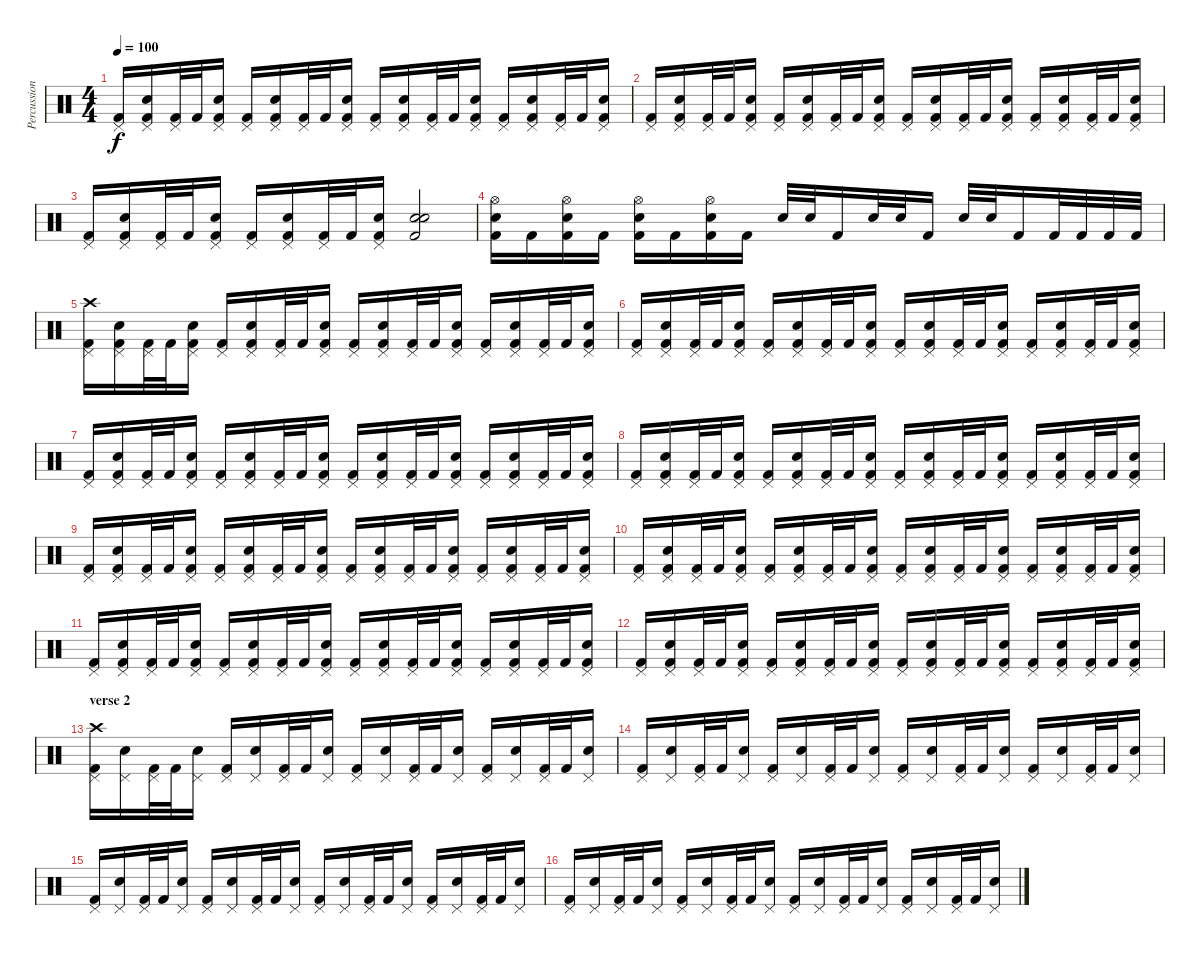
\track ("Percussion" "Percussion") {instrument percussion}
\staff {score}
\articulation defaults
\ts (4 4)
\tempo 100
\clef neutral
\ks c
("Pedal Hi-Hat (hit)" "Kick (hit) 2").16{dy f} ("Pedal Hi-Hat (hit)" "Electric Snare (hit)" "Kick (hit) 2").16 ("Pedal Hi-Hat (hit)" "Kick (hit) 2").32 "Kick (hit) 2".32 ("Pedal Hi-Hat (hit)" "Electric Snare (hit)" "Kick (hit) 2").16 ("Pedal Hi-Hat (hit)" "Kick (hit) 2").16 ("Pedal Hi-Hat (hit)" "Electric Snare (hit)" "Kick (hit) 2").16 ("Pedal Hi-Hat (hit)" "Kick (hit) 2").32 "Kick (hit) 2".32 ("Pedal Hi-Hat (hit)" "Electric Snare (hit)" "Kick (hit) 2").16 ("Pedal Hi-Hat (hit)" "Kick (hit) 2").16 ("Pedal Hi-Hat (hit)" "Electric Snare (hit)" "Kick (hit) 2").16 ("Pedal Hi-Hat (hit)" "Kick (hit) 2").32 "Kick (hit) 2".32 ("Pedal Hi-Hat (hit)" "Electric Snare (hit)" "Kick (hit) 2").16 ("Pedal Hi-Hat (hit)" "Kick (hit) 2").16 ("Pedal Hi-Hat (hit)" "Electric Snare (hit)" "Kick (hit) 2").16 ("Pedal Hi-Hat (hit)" "Kick (hit) 2").32 "Kick (hit) 2".32 ("Pedal Hi-Hat (hit)" "Electric Snare (hit)" "Kick (hit) 2").16 |
("Pedal Hi-Hat (hit)" "Kick (hit) 2").16 ("Pedal Hi-Hat (hit)" "Electric Snare (hit)" "Kick (hit) 2").16 ("Pedal Hi-Hat (hit)" "Kick (hit) 2").32 "Kick (hit) 2".32 ("Pedal Hi-Hat (hit)" "Electric Snare (hit)" "Kick (hit) 2").16 ("Pedal Hi-Hat (hit)" "Kick (hit) 2").16 ("Pedal Hi-Hat (hit)" "Electric Snare (hit)" "Kick (hit) 2").16 ("Pedal Hi-Hat (hit)" "Kick (hit) 2").32 "Kick (hit) 2".32 ("Pedal Hi-Hat (hit)" "Electric Snare (hit)" "Kick (hit) 2").16 ("Pedal Hi-Hat (hit)" "Kick (hit) 2").16 ("Pedal Hi-Hat (hit)" "Electric Snare (hit)" "Kick (hit) 2").16 ("Pedal Hi-Hat (hit)" "Kick (hit) 2").32 "Kick (hit) 2".32 ("Pedal Hi-Hat (hit)" "Electric Snare (hit)" "Kick (hit) 2").16 ("Pedal Hi-Hat (hit)" "Kick (hit) 2").16 ("Pedal Hi-Hat (hit)" "Electric Snare (hit)" "Kick (hit) 2").16 ("Pedal Hi-Hat (hit)" "Kick (hit) 2").32 "Kick (hit) 2".32 ("Pedal Hi-Hat (hit)" "Electric Snare (hit)" "Kick (hit) 2").16 |
("Pedal Hi-Hat (hit)" "Kick (hit) 2").16 ("Pedal Hi-Hat (hit)" "Electric Snare (hit)" "Kick (hit) 2").16 ("Pedal Hi-Hat (hit)" "Kick (hit) 2").32 "Kick (hit) 2".32 ("Pedal Hi-Hat (hit)" "Electric Snare (hit)" "Kick (hit) 2").16 ("Pedal Hi-Hat (hit)" "Kick (hit) 2").16 ("Pedal Hi-Hat (hit)" "Electric Snare (hit)" "Kick (hit) 2").16 ("Pedal Hi-Hat (hit)" "Kick (hit) 2").32 "Kick (hit) 2".32 ("Pedal Hi-Hat (hit)" "Electric Snare (hit)" "Kick (hit) 2").16 ("Snare (hit) 2" "Electric Snare (hit)" "Kick (hit) 2").2 |
("Hi-Hat (open)" "Electric Snare (hit)" "Kick (hit) 2").16 "Kick (hit) 2".16 ("Hi-Hat (open)" "Electric Snare (hit)" "Kick (hit) 2").16 "Kick (hit) 2".16 ("Hi-Hat (open)" "Electric Snare (hit)" "Kick (hit) 2").16 "Kick (hit) 2".16 ("Hi-Hat (open)" "Electric Snare (hit)" "Kick (hit) 2").16 "Kick (hit) 2".16 "Electric Snare (hit)".32 "Electric Snare (hit)".32 "Kick (hit) 2".16 "Electric Snare (hit)".32 "Electric Snare (hit)".32 "Kick (hit) 2".16 "Electric Snare (hit)".32 "Electric Snare (hit)".32 "Kick (hit) 2".16 "Kick (hit) 2".32 "Kick (hit) 2".32 "Kick (hit) 2".32 "Kick (hit) 2".32 |
("Crash high (hit)" "Pedal Hi-Hat (hit)" "Kick (hit) 2").16 ("Pedal Hi-Hat (hit)" "Electric Snare (hit)" "Kick (hit) 2").16 ("Pedal Hi-Hat (hit)" "Kick (hit) 2").32 "Kick (hit) 2".32 ("Pedal Hi-Hat (hit)" "Electric Snare (hit)" "Kick (hit) 2").16 ("Pedal Hi-Hat (hit)" "Kick (hit) 2").16 ("Pedal Hi-Hat (hit)" "Electric Snare (hit)" "Kick (hit) 2").16 ("Pedal Hi-Hat (hit)" "Kick (hit) 2").32 "Kick (hit) 2".32 ("Pedal Hi-Hat (hit)" "Electric Snare (hit)" "Kick (hit) 2").16 ("Pedal Hi-Hat (hit)" "Kick (hit) 2").16 ("Pedal Hi-Hat (hit)" "Electric Snare (hit)" "Kick (hit) 2").16 ("Pedal Hi-Hat (hit)" "Kick (hit) 2").32 "Kick (hit) 2".32 ("Pedal Hi-Hat (hit)" "Electric Snare (hit)" "Kick (hit) 2").16 ("Pedal Hi-Hat (hit)" "Kick (hit) 2").16 ("Pedal Hi-Hat (hit)" "Electric Snare (hit)" "Kick (hit) 2").16 ("Pedal Hi-Hat (hit)" "Kick (hit) 2").32 "Kick (hit) 2".32 ("Pedal Hi-Hat (hit)" "Electric Snare (hit)" "Kick (hit) 2").16 |
("Pedal Hi-Hat (hit)" "Kick (hit) 2").16 ("Pedal Hi-Hat (hit)" "Electric Snare (hit)" "Kick (hit) 2").16 ("Pedal Hi-Hat (hit)" "Kick (hit) 2").32 "Kick (hit) 2".32 ("Pedal Hi-Hat (hit)" "Electric Snare (hit)" "Kick (hit) 2").16 ("Pedal Hi-Hat (hit)" "Kick (hit) 2").16 ("Pedal Hi-Hat (hit)" "Electric Snare (hit)" "Kick (hit) 2").16 ("Pedal Hi-Hat (hit)" "Kick (hit) 2").32 "Kick (hit) 2".32 ("Pedal Hi-Hat (hit)" "Electric Snare (hit)" "Kick (hit) 2").16 ("Pedal Hi-Hat (hit)" "Kick (hit) 2").16 ("Pedal Hi-Hat (hit)" "Electric Snare (hit)" "Kick (hit) 2").16 ("Pedal Hi-Hat (hit)" "Kick (hit) 2").32 "Kick (hit) 2".32 ("Pedal Hi-Hat (hit)" "Electric Snare (hit)" "Kick (hit) 2").16 ("Pedal Hi-Hat (hit)" "Kick (hit) 2").16 ("Pedal Hi-Hat (hit)" "Electric Snare (hit)" "Kick (hit) 2").16 ("Pedal Hi-Hat (hit)" "Kick (hit) 2").32 "Kick (hit) 2".32 ("Pedal Hi-Hat (hit)" "Electric Snare (hit)" "Kick (hit) 2").16 |
("Pedal Hi-Hat (hit)" "Kick (hit) 2").16 ("Pedal Hi-Hat (hit)" "Electric Snare (hit)" "Kick (hit) 2").16 ("Pedal Hi-Hat (hit)" "Kick (hit) 2").32 "Kick (hit) 2".32 ("Pedal Hi-Hat (hit)" "Electric Snare (hit)" "Kick (hit) 2").16 ("Pedal Hi-Hat (hit)" "Kick (hit) 2").16 ("Pedal Hi-Hat (hit)" "Electric Snare (hit)" "Kick (hit) 2").16 ("Pedal Hi-Hat (hit)" "Kick (hit) 2").32 "Kick (hit) 2".32 ("Pedal Hi-Hat (hit)" "Electric Snare (hit)" "Kick (hit) 2").16 ("Pedal Hi-Hat (hit)" "Kick (hit) 2").16 ("Pedal Hi-Hat (hit)" "Electric Snare (hit)" "Kick (hit) 2").16 ("Pedal Hi-Hat (hit)" "Kick (hit) 2").32 "Kick (hit) 2".32 ("Pedal Hi-Hat (hit)" "Electric Snare (hit)" "Kick (hit) 2").16 ("Pedal Hi-Hat (hit)" "Kick (hit) 2").16 ("Pedal Hi-Hat (hit)" "Electric Snare (hit)" "Kick (hit) 2").16 ("Pedal Hi-Hat (hit)" "Kick (hit) 2").32 "Kick (hit) 2".32 ("Pedal Hi-Hat (hit)" "Electric Snare (hit)" "Kick (hit) 2").16 |
("Pedal Hi-Hat (hit)" "Kick (hit) 2").16 ("Pedal Hi-Hat (hit)" "Electric Snare (hit)" "Kick (hit) 2").16 ("Pedal Hi-Hat (hit)" "Kick (hit) 2").32 "Kick (hit) 2".32 ("Pedal Hi-Hat (hit)" "Electric Snare (hit)" "Kick (hit) 2").16 ("Pedal Hi-Hat (hit)" "Kick (hit) 2").16 ("Pedal Hi-Hat (hit)" "Electric Snare (hit)" "Kick (hit) 2").16 ("Pedal Hi-Hat (hit)" "Kick (hit) 2").32 "Kick (hit) 2".32 ("Pedal Hi-Hat (hit)" "Electric Snare (hit)" "Kick (hit) 2").16 ("Pedal Hi-Hat (hit)" "Kick (hit) 2").16 ("Pedal Hi-Hat (hit)" "Electric Snare (hit)" "Kick (hit) 2").16 ("Pedal Hi-Hat (hit)" "Kick (hit) 2").32 "Kick (hit) 2".32 ("Pedal Hi-Hat (hit)" "Electric Snare (hit)" "Kick (hit) 2").16 ("Pedal Hi-Hat (hit)" "Kick (hit) 2").16 ("Pedal Hi-Hat (hit)" "Electric Snare (hit)" "Kick (hit) 2").16 ("Pedal Hi-Hat (hit)" "Kick (hit) 2").32 "Kick (hit) 2".32 ("Pedal Hi-Hat (hit)" "Electric Snare (hit)" "Kick (hit) 2").16 |
("Pedal Hi-Hat (hit)" "Kick (hit) 2").16 ("Pedal Hi-Hat (hit)" "Electric Snare (hit)" "Kick (hit) 2").16 ("Pedal Hi-Hat (hit)" "Kick (hit) 2").32 "Kick (hit) 2".32 ("Pedal Hi-Hat (hit)" "Electric Snare (hit)" "Kick (hit) 2").16 ("Pedal Hi-Hat (hit)" "Kick (hit) 2").16 ("Pedal Hi-Hat (hit)" "Electric Snare (hit)" "Kick (hit) 2").16 ("Pedal Hi-Hat (hit)" "Kick (hit) 2").32 "Kick (hit) 2".32 ("Pedal Hi-Hat (hit)" "Electric Snare (hit)" "Kick (hit) 2").16 ("Pedal Hi-Hat (hit)" "Kick (hit) 2").16 ("Pedal Hi-Hat (hit)" "Electric Snare (hit)" "Kick (hit) 2").16 ("Pedal Hi-Hat (hit)" "Kick (hit) 2").32 "Kick (hit) 2".32 ("Pedal Hi-Hat (hit)" "Electric Snare (hit)" "Kick (hit) 2").16 ("Pedal Hi-Hat (hit)" "Kick (hit) 2").16 ("Pedal Hi-Hat (hit)" "Electric Snare (hit)" "Kick (hit) 2").16 ("Pedal Hi-Hat (hit)" "Kick (hit) 2").32 "Kick (hit) 2".32 ("Pedal Hi-Hat (hit)" "Electric Snare (hit)" "Kick (hit) 2").16 |
("Pedal Hi-Hat (hit)" "Kick (hit) 2").16 ("Pedal Hi-Hat (hit)" "Electric Snare (hit)" "Kick (hit) 2").16 ("Pedal Hi-Hat (hit)" "Kick (hit) 2").32 "Kick (hit) 2".32 ("Pedal Hi-Hat (hit)" "Electric Snare (hit)" "Kick (hit) 2").16 ("Pedal Hi-Hat (hit)" "Kick (hit) 2").16 ("Pedal Hi-Hat (hit)" "Electric Snare (hit)" "Kick (hit) 2").16 ("Pedal Hi-Hat (hit)" "Kick (hit) 2").32 "Kick (hit) 2".32 ("Pedal Hi-Hat (hit)" "Electric Snare (hit)" "Kick (hit) 2").16 ("Pedal Hi-Hat (hit)" "Kick (hit) 2").16 ("Pedal Hi-Hat (hit)" "Electric Snare (hit)" "Kick (hit) 2").16 ("Pedal Hi-Hat (hit)" "Kick (hit) 2").32 "Kick (hit) 2".32 ("Pedal Hi-Hat (hit)" "Electric Snare (hit)" "Kick (hit) 2").16 ("Pedal Hi-Hat (hit)" "Kick (hit) 2").16 ("Pedal Hi-Hat (hit)" "Electric Snare (hit)" "Kick (hit) 2").16 ("Pedal Hi-Hat (hit)" "Kick (hit) 2").32 "Kick (hit) 2".32 ("Pedal Hi-Hat (hit)" "Electric Snare (hit)" "Kick (hit) 2").16 |
("Pedal Hi-Hat (hit)" "Kick (hit) 2").16 ("Pedal Hi-Hat (hit)" "Electric Snare (hit)" "Kick (hit) 2").16 ("Pedal Hi-Hat (hit)" "Kick (hit) 2").32 "Kick (hit) 2".32 ("Pedal Hi-Hat (hit)" "Electric Snare (hit)" "Kick (hit) 2").16 ("Pedal Hi-Hat (hit)" "Kick (hit) 2").16 ("Pedal Hi-Hat (hit)" "Electric Snare (hit)" "Kick (hit) 2").16 ("Pedal Hi-Hat (hit)" "Kick (hit) 2").32 "Kick (hit) 2".32 ("Pedal Hi-Hat (hit)" "Electric Snare (hit)" "Kick (hit) 2").16 ("Pedal Hi-Hat (hit)" "Kick (hit) 2").16 ("Pedal Hi-Hat (hit)" "Electric Snare (hit)" "Kick (hit) 2").16 ("Pedal Hi-Hat (hit)" "Kick (hit) 2").32 "Kick (hit) 2".32 ("Pedal Hi-Hat (hit)" "Electric Snare (hit)" "Kick (hit) 2").16 ("Pedal Hi-Hat (hit)" "Kick (hit) 2").16 ("Pedal Hi-Hat (hit)" "Electric Snare (hit)" "Kick (hit) 2").16 ("Pedal Hi-Hat (hit)" "Kick (hit) 2").32 "Kick (hit) 2".32 ("Pedal Hi-Hat (hit)" "Electric Snare (hit)" "Kick (hit) 2").16 |
("Pedal Hi-Hat (hit)" "Kick (hit) 2").16 ("Pedal Hi-Hat (hit)" "Electric Snare (hit)" "Kick (hit) 2").16 ("Pedal Hi-Hat (hit)" "Kick (hit) 2").32 "Kick (hit) 2".32 ("Pedal Hi-Hat (hit)" "Electric Snare (hit)" "Kick (hit) 2").16 ("Pedal Hi-Hat (hit)" "Kick (hit) 2").16 ("Pedal Hi-Hat (hit)" "Electric Snare (hit)" "Kick (hit) 2").16 ("Pedal Hi-Hat (hit)" "Kick (hit) 2").32 "Kick (hit) 2".32 ("Pedal Hi-Hat (hit)" "Electric Snare (hit)" "Kick (hit) 2").16 ("Pedal Hi-Hat (hit)" "Kick (hit) 2").16 ("Pedal Hi-Hat (hit)" "Electric Snare (hit)" "Kick (hit) 2").16 ("Pedal Hi-Hat (hit)" "Kick (hit) 2").32 "Kick (hit) 2".32 ("Pedal Hi-Hat (hit)" "Electric Snare (hit)" "Kick (hit) 2").16 ("Pedal Hi-Hat (hit)" "Kick (hit) 2").16 ("Pedal Hi-Hat (hit)" "Electric Snare (hit)" "Kick (hit) 2").16 ("Pedal Hi-Hat (hit)" "Kick (hit) 2").32 "Kick (hit) 2".32 ("Pedal Hi-Hat (hit)" "Electric Snare (hit)" "Kick (hit) 2").16 |
\section ("" "verse 2")
("Crash high (hit)" "Pedal Hi-Hat (hit)" "Kick (hit) 2").16 ("Pedal Hi-Hat (hit)" "Electric Snare (hit)").16 ("Pedal Hi-Hat (hit)" "Kick (hit) 2").32 "Kick (hit) 2".32 ("Pedal Hi-Hat (hit)" "Electric Snare (hit)").16 ("Pedal Hi-Hat (hit)" "Kick (hit) 2").16 ("Pedal Hi-Hat (hit)" "Electric Snare (hit)").16 ("Pedal Hi-Hat (hit)" "Kick (hit) 2").32 "Kick (hit) 2".32 ("Pedal Hi-Hat (hit)" "Electric Snare (hit)").16 ("Pedal Hi-Hat (hit)" "Kick (hit) 2").16 ("Pedal Hi-Hat (hit)" "Electric Snare (hit)").16 ("Pedal Hi-Hat (hit)" "Kick (hit) 2").32 "Kick (hit) 2".32 ("Pedal Hi-Hat (hit)" "Electric Snare (hit)").16 ("Pedal Hi-Hat (hit)" "Kick (hit) 2").16 ("Pedal Hi-Hat (hit)" "Electric Snare (hit)").16 ("Pedal Hi-Hat (hit)" "Kick (hit) 2").32 "Kick (hit) 2".32 ("Pedal Hi-Hat (hit)" "Electric Snare (hit)").16 |
("Pedal Hi-Hat (hit)" "Kick (hit) 2").16 ("Pedal Hi-Hat (hit)" "Electric Snare (hit)").16 ("Pedal Hi-Hat (hit)" "Kick (hit) 2").32 "Kick (hit) 2".32 ("Pedal Hi-Hat (hit)" "Electric Snare (hit)").16 ("Pedal Hi-Hat (hit)" "Kick (hit) 2").16 ("Pedal Hi-Hat (hit)" "Electric Snare (hit)").16 ("Pedal Hi-Hat (hit)" "Kick (hit) 2").32 "Kick (hit) 2".32 ("Pedal Hi-Hat (hit)" "Electric Snare (hit)").16 ("Pedal Hi-Hat (hit)" "Kick (hit) 2").16 ("Pedal Hi-Hat (hit)" "Electric Snare (hit)").16 ("Pedal Hi-Hat (hit)" "Kick (hit) 2").32 "Kick (hit) 2".32 ("Pedal Hi-Hat (hit)" "Electric Snare (hit)").16 ("Pedal Hi-Hat (hit)" "Kick (hit) 2").16 ("Pedal Hi-Hat (hit)" "Electric Snare (hit)").16 ("Pedal Hi-Hat (hit)" "Kick (hit) 2").32 "Kick (hit) 2".32 ("Pedal Hi-Hat (hit)" "Electric Snare (hit)").16 |
("Pedal Hi-Hat (hit)" "Kick (hit) 2").16 ("Pedal Hi-Hat (hit)" "Electric Snare (hit)").16 ("Pedal Hi-Hat (hit)" "Kick (hit) 2").32 "Kick (hit) 2".32 ("Pedal Hi-Hat (hit)" "Electric Snare (hit)").16 ("Pedal Hi-Hat (hit)" "Kick (hit) 2").16 ("Pedal Hi-Hat (hit)" "Electric Snare (hit)").16 ("Pedal Hi-Hat (hit)" "Kick (hit) 2").32 "Kick (hit) 2".32 ("Pedal Hi-Hat (hit)" "Electric Snare (hit)").16 ("Pedal Hi-Hat (hit)" "Kick (hit) 2").16 ("Pedal Hi-Hat (hit)" "Electric Snare (hit)").16 ("Pedal Hi-Hat (hit)" "Kick (hit) 2").32 "Kick (hit) 2".32 ("Pedal Hi-Hat (hit)" "Electric Snare (hit)").16 ("Pedal Hi-Hat (hit)" "Kick (hit) 2").16 ("Pedal Hi-Hat (hit)" "Electric Snare (hit)").16 ("Pedal Hi-Hat (hit)" "Kick (hit) 2").32 "Kick (hit) 2".32 ("Pedal Hi-Hat (hit)" "Electric Snare (hit)").16 |
("Pedal Hi-Hat (hit)" "Kick (hit) 2").16 ("Pedal Hi-Hat (hit)" "Electric Snare (hit)").16 ("Pedal Hi-Hat (hit)" "Kick (hit) 2").32 "Kick (hit) 2".32 ("Pedal Hi-Hat (hit)" "Electric Snare (hit)").16 ("Pedal Hi-Hat (hit)" "Kick (hit) 2").16 ("Pedal Hi-Hat (hit)" "Electric Snare (hit)").16 ("Pedal Hi-Hat (hit)" "Kick (hit) 2").32 "Kick (hit) 2".32 ("Pedal Hi-Hat (hit)" "Electric Snare (hit)").16 ("Pedal Hi-Hat (hit)" "Kick (hit) 2").16 ("Pedal Hi-Hat (hit)" "Electric Snare (hit)").16 ("Pedal Hi-Hat (hit)" "Kick (hit) 2").32 "Kick (hit) 2".32 ("Pedal Hi-Hat (hit)" "Electric Snare (hit)").16 ("Pedal Hi-Hat (hit)" "Kick (hit) 2").16 ("Pedal Hi-Hat (hit)" "Electric Snare (hit)").16 ("Pedal Hi-Hat (hit)" "Kick (hit) 2").32 "Kick (hit) 2".32 ("Pedal Hi-Hat (hit)" "Electric Snare (hit)").16
